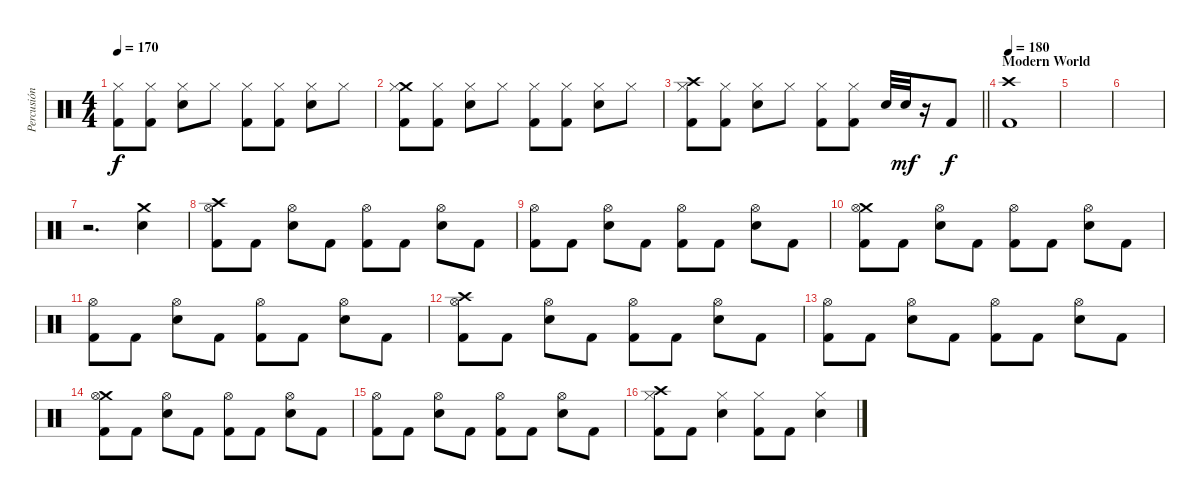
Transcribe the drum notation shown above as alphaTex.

\track ("Percusión" "Percusión") {instrument percussion}
\staff {score}
\articulation defaults
\ts (4 4)
\tempo 170
\clef neutral
\ks c
("Hi-Hat (closed)" "Kick (hit) 2").8{dy f} ("Hi-Hat (closed)" "Kick (hit) 2").8 ("Hi-Hat (closed)" "Electric Snare (hit)").8 "Hi-Hat (closed)".8 ("Hi-Hat (closed)" "Kick (hit) 2").8 ("Hi-Hat (closed)" "Kick (hit) 2").8 ("Hi-Hat (closed)" "Electric Snare (hit)").8 "Hi-Hat (closed)".8 |
("Crash medium (hit)" "Hi-Hat (closed)" "Kick (hit) 2").8 ("Hi-Hat (closed)" "Kick (hit) 2").8 ("Hi-Hat (closed)" "Electric Snare (hit)").8 "Hi-Hat (closed)".8 ("Hi-Hat (closed)" "Kick (hit) 2").8 ("Hi-Hat (closed)" "Kick (hit) 2").8 ("Hi-Hat (closed)" "Electric Snare (hit)").8 "Hi-Hat (closed)".8 |
\barLineRight lightlight
("Crash high (hit)" "Hi-Hat (closed)" "Kick (hit) 2").8 ("Hi-Hat (closed)" "Kick (hit) 2").8 ("Hi-Hat (closed)" "Electric Snare (hit)").8 "Hi-Hat (closed)".8 ("Hi-Hat (closed)" "Kick (hit) 2").8 ("Hi-Hat (closed)" "Kick (hit) 2").8 "Electric Snare (hit)".32 "Electric Snare (hit)".32{dy mf} r.16 "Kick (hit) 2".8{dy f} |
\section ("" "Modern World")
\tempo 180
("Crash high (hit)" "Kick (hit) 2").1 |
|
|
r.2{d} ("Crash medium (hit)" "Electric Snare (hit)").4 |
("Crash high (hit)" "Hi-Hat (open)" "Kick (hit) 2").8 "Kick (hit) 2".8 ("Hi-Hat (open)" "Electric Snare (hit)").8 "Kick (hit) 2".8 ("Hi-Hat (open)" "Kick (hit) 2").8 "Kick (hit) 2".8 ("Hi-Hat (open)" "Electric Snare (hit)").8 "Kick (hit) 2".8 |
("Hi-Hat (open)" "Kick (hit) 2").8 "Kick (hit) 2".8 ("Hi-Hat (open)" "Electric Snare (hit)").8 "Kick (hit) 2".8 ("Hi-Hat (open)" "Kick (hit) 2").8 "Kick (hit) 2".8 ("Hi-Hat (open)" "Electric Snare (hit)").8 "Kick (hit) 2".8 |
("Crash medium (hit)" "Hi-Hat (open)" "Kick (hit) 2").8 "Kick (hit) 2".8 ("Hi-Hat (open)" "Electric Snare (hit)").8 "Kick (hit) 2".8 ("Hi-Hat (open)" "Kick (hit) 2").8 "Kick (hit) 2".8 ("Hi-Hat (open)" "Electric Snare (hit)").8 "Kick (hit) 2".8 |
("Hi-Hat (open)" "Kick (hit) 2").8 "Kick (hit) 2".8 ("Hi-Hat (open)" "Electric Snare (hit)").8 "Kick (hit) 2".8 ("Hi-Hat (open)" "Kick (hit) 2").8 "Kick (hit) 2".8 ("Hi-Hat (open)" "Electric Snare (hit)").8 "Kick (hit) 2".8 |
("Crash high (hit)" "Hi-Hat (open)" "Kick (hit) 2").8 "Kick (hit) 2".8 ("Hi-Hat (open)" "Electric Snare (hit)").8 "Kick (hit) 2".8 ("Hi-Hat (open)" "Kick (hit) 2").8 "Kick (hit) 2".8 ("Hi-Hat (open)" "Electric Snare (hit)").8 "Kick (hit) 2".8 |
("Hi-Hat (open)" "Kick (hit) 2").8 "Kick (hit) 2".8 ("Hi-Hat (open)" "Electric Snare (hit)").8 "Kick (hit) 2".8 ("Hi-Hat (open)" "Kick (hit) 2").8 "Kick (hit) 2".8 ("Hi-Hat (open)" "Electric Snare (hit)").8 "Kick (hit) 2".8 |
("Crash medium (hit)" "Hi-Hat (open)" "Kick (hit) 2").8 "Kick (hit) 2".8 ("Hi-Hat (open)" "Electric Snare (hit)").8 "Kick (hit) 2".8 ("Hi-Hat (open)" "Kick (hit) 2").8 "Kick (hit) 2".8 ("Hi-Hat (open)" "Electric Snare (hit)").8 "Kick (hit) 2".8 |
("Hi-Hat (open)" "Kick (hit) 2").8 "Kick (hit) 2".8 ("Hi-Hat (open)" "Electric Snare (hit)").8 "Kick (hit) 2".8 ("Hi-Hat (open)" "Kick (hit) 2").8 "Kick (hit) 2".8 ("Hi-Hat (open)" "Electric Snare (hit)").8 "Kick (hit) 2".8 |
("Crash high (hit)" "Hi-Hat (closed)" "Kick (hit) 2").8 "Kick (hit) 2".8 ("Hi-Hat (closed)" "Electric Snare (hit)").4 ("Hi-Hat (closed)" "Kick (hit) 2").8 "Kick (hit) 2".8 ("Hi-Hat (closed)" "Electric Snare (hit)").4
